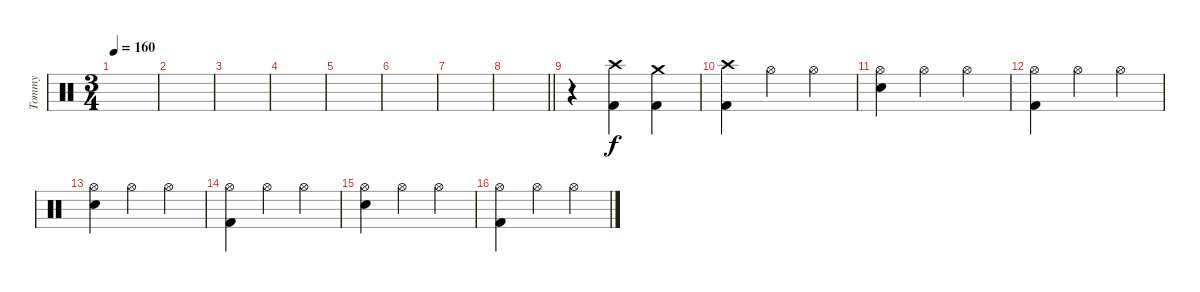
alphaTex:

\track ("Tommy" "Tommy") {instrument percussion}
\staff {score}
\articulation defaults
\ts (3 4)
\tempo 160
\clef neutral
\ks c
|
|
|
|
|
|
|
\barLineRight lightlight
|
\section ("" "")
r.4 ("Crash high (hit)" "Kick (hit) 2").4 ("Crash medium (hit)" "Kick (hit) 2").4 |
("Crash high (hit)" "Kick (hit) 2").4 "Hi-Hat (open)".4 "Hi-Hat (open)".4 |
("Hi-Hat (open)" "Electric Snare (hit)").4 "Hi-Hat (open)".4 "Hi-Hat (open)".4 |
("Hi-Hat (open)" "Kick (hit) 2").4 "Hi-Hat (open)".4 "Hi-Hat (open)".4 |
("Hi-Hat (open)" "Electric Snare (hit)").4 "Hi-Hat (open)".4 "Hi-Hat (open)".4 |
("Hi-Hat (open)" "Kick (hit) 2").4 "Hi-Hat (open)".4 "Hi-Hat (open)".4 |
("Hi-Hat (open)" "Electric Snare (hit)").4 "Hi-Hat (open)".4 "Hi-Hat (open)".4 |
("Hi-Hat (open)" "Kick (hit) 2").4 "Hi-Hat (open)".4 "Hi-Hat (open)".4
